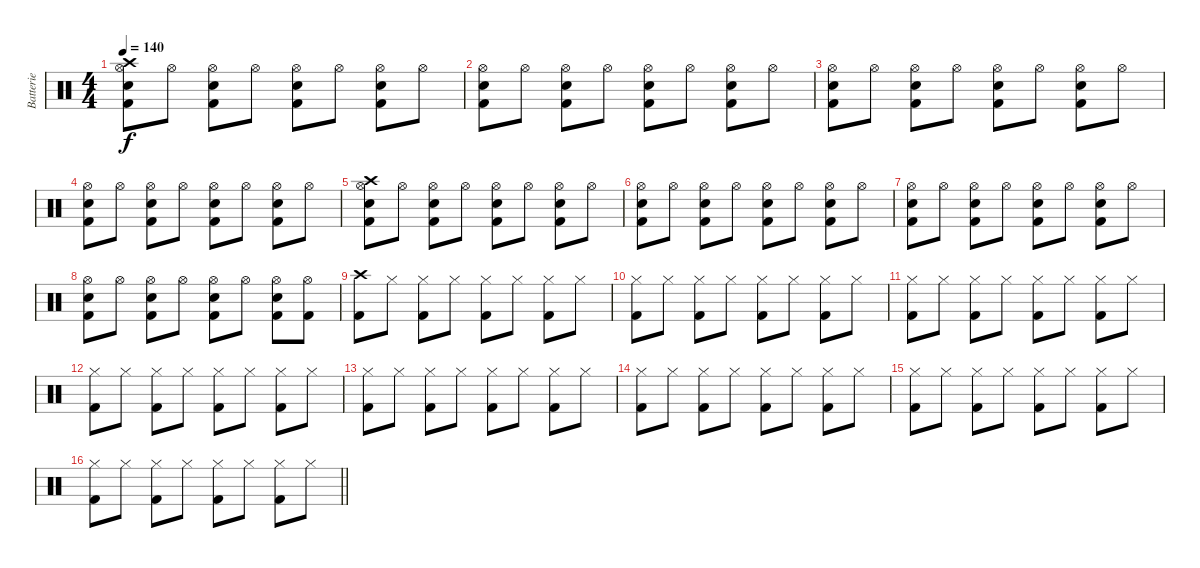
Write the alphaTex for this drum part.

\track ("Batterie" "Batterie") {instrument percussion}
\staff {score}
\articulation defaults
\ts (4 4)
\tempo 140
\clef neutral
\ks c
("Crash high (hit)" "Hi-Hat (open)" "Electric Snare (hit)" "Kick (hit) 2").8{dy f} "Hi-Hat (open)".8 ("Hi-Hat (open)" "Electric Snare (hit)" "Kick (hit) 2").8 "Hi-Hat (open)".8 ("Hi-Hat (open)" "Electric Snare (hit)" "Kick (hit) 2").8 "Hi-Hat (open)".8 ("Hi-Hat (open)" "Electric Snare (hit)" "Kick (hit) 2").8 "Hi-Hat (open)".8 |
("Hi-Hat (open)" "Electric Snare (hit)" "Kick (hit) 2").8 "Hi-Hat (open)".8 ("Hi-Hat (open)" "Electric Snare (hit)" "Kick (hit) 2").8 "Hi-Hat (open)".8 ("Hi-Hat (open)" "Electric Snare (hit)" "Kick (hit) 2").8 "Hi-Hat (open)".8 ("Hi-Hat (open)" "Electric Snare (hit)" "Kick (hit) 2").8 "Hi-Hat (open)".8 |
("Hi-Hat (open)" "Electric Snare (hit)" "Kick (hit) 2").8 "Hi-Hat (open)".8 ("Hi-Hat (open)" "Electric Snare (hit)" "Kick (hit) 2").8 "Hi-Hat (open)".8 ("Hi-Hat (open)" "Electric Snare (hit)" "Kick (hit) 2").8 "Hi-Hat (open)".8 ("Hi-Hat (open)" "Electric Snare (hit)" "Kick (hit) 2").8 "Hi-Hat (open)".8 |
("Hi-Hat (open)" "Electric Snare (hit)" "Kick (hit) 2").8 "Hi-Hat (open)".8 ("Hi-Hat (open)" "Electric Snare (hit)" "Kick (hit) 2").8 "Hi-Hat (open)".8 ("Hi-Hat (open)" "Electric Snare (hit)" "Kick (hit) 2").8 "Hi-Hat (open)".8 ("Hi-Hat (open)" "Electric Snare (hit)" "Kick (hit) 2").8 "Hi-Hat (open)".8 |
("Crash high (hit)" "Hi-Hat (open)" "Electric Snare (hit)" "Kick (hit) 2").8 "Hi-Hat (open)".8 ("Hi-Hat (open)" "Electric Snare (hit)" "Kick (hit) 2").8 "Hi-Hat (open)".8 ("Hi-Hat (open)" "Electric Snare (hit)" "Kick (hit) 2").8 "Hi-Hat (open)".8 ("Hi-Hat (open)" "Electric Snare (hit)" "Kick (hit) 2").8 "Hi-Hat (open)".8 |
("Hi-Hat (open)" "Electric Snare (hit)" "Kick (hit) 2").8 "Hi-Hat (open)".8 ("Hi-Hat (open)" "Electric Snare (hit)" "Kick (hit) 2").8 "Hi-Hat (open)".8 ("Hi-Hat (open)" "Electric Snare (hit)" "Kick (hit) 2").8 "Hi-Hat (open)".8 ("Hi-Hat (open)" "Electric Snare (hit)" "Kick (hit) 2").8 "Hi-Hat (open)".8 |
("Hi-Hat (open)" "Electric Snare (hit)" "Kick (hit) 2").8 "Hi-Hat (open)".8 ("Hi-Hat (open)" "Electric Snare (hit)" "Kick (hit) 2").8 "Hi-Hat (open)".8 ("Hi-Hat (open)" "Electric Snare (hit)" "Kick (hit) 2").8 "Hi-Hat (open)".8 ("Hi-Hat (open)" "Electric Snare (hit)" "Kick (hit) 2").8 "Hi-Hat (open)".8 |
("Hi-Hat (open)" "Electric Snare (hit)" "Kick (hit) 2").8 "Hi-Hat (open)".8 ("Hi-Hat (open)" "Electric Snare (hit)" "Kick (hit) 2").8 "Hi-Hat (open)".8 ("Hi-Hat (open)" "Electric Snare (hit)" "Kick (hit) 2").8 "Hi-Hat (open)".8 ("Hi-Hat (open)" "Electric Snare (hit)" "Kick (hit) 2").8 ("Hi-Hat (open)" "Kick (hit) 2").8 |
("Crash high (hit)" "Kick (hit) 2").8 "Hi-Hat (closed)".8 ("Hi-Hat (closed)" "Kick (hit) 2").8 "Hi-Hat (closed)".8 ("Hi-Hat (closed)" "Kick (hit) 2").8 "Hi-Hat (closed)".8 ("Hi-Hat (closed)" "Kick (hit) 2").8 "Hi-Hat (closed)".8 |
("Hi-Hat (closed)" "Kick (hit) 2").8 "Hi-Hat (closed)".8 ("Hi-Hat (closed)" "Kick (hit) 2").8 "Hi-Hat (closed)".8 ("Hi-Hat (closed)" "Kick (hit) 2").8 "Hi-Hat (closed)".8 ("Hi-Hat (closed)" "Kick (hit) 2").8 "Hi-Hat (closed)".8 |
("Hi-Hat (closed)" "Kick (hit) 2").8 "Hi-Hat (closed)".8 ("Hi-Hat (closed)" "Kick (hit) 2").8 "Hi-Hat (closed)".8 ("Hi-Hat (closed)" "Kick (hit) 2").8 "Hi-Hat (closed)".8 ("Hi-Hat (closed)" "Kick (hit) 2").8 "Hi-Hat (closed)".8 |
("Hi-Hat (closed)" "Kick (hit) 2").8 "Hi-Hat (closed)".8 ("Hi-Hat (closed)" "Kick (hit) 2").8 "Hi-Hat (closed)".8 ("Hi-Hat (closed)" "Kick (hit) 2").8 "Hi-Hat (closed)".8 ("Hi-Hat (closed)" "Kick (hit) 2").8 "Hi-Hat (closed)".8 |
("Hi-Hat (closed)" "Kick (hit) 2").8 "Hi-Hat (closed)".8 ("Hi-Hat (closed)" "Kick (hit) 2").8 "Hi-Hat (closed)".8 ("Hi-Hat (closed)" "Kick (hit) 2").8 "Hi-Hat (closed)".8 ("Hi-Hat (closed)" "Kick (hit) 2").8 "Hi-Hat (closed)".8 |
("Hi-Hat (closed)" "Kick (hit) 2").8 "Hi-Hat (closed)".8 ("Hi-Hat (closed)" "Kick (hit) 2").8 "Hi-Hat (closed)".8 ("Hi-Hat (closed)" "Kick (hit) 2").8 "Hi-Hat (closed)".8 ("Hi-Hat (closed)" "Kick (hit) 2").8 "Hi-Hat (closed)".8 |
("Hi-Hat (closed)" "Kick (hit) 2").8 "Hi-Hat (closed)".8 ("Hi-Hat (closed)" "Kick (hit) 2").8 "Hi-Hat (closed)".8 ("Hi-Hat (closed)" "Kick (hit) 2").8 "Hi-Hat (closed)".8 ("Hi-Hat (closed)" "Kick (hit) 2").8 "Hi-Hat (closed)".8 |
\barLineRight lightlight
("Hi-Hat (closed)" "Kick (hit) 2").8 "Hi-Hat (closed)".8 ("Hi-Hat (closed)" "Kick (hit) 2").8 "Hi-Hat (closed)".8 ("Hi-Hat (closed)" "Kick (hit) 2").8 "Hi-Hat (closed)".8 ("Hi-Hat (closed)" "Kick (hit) 2").8 "Hi-Hat (closed)".8
